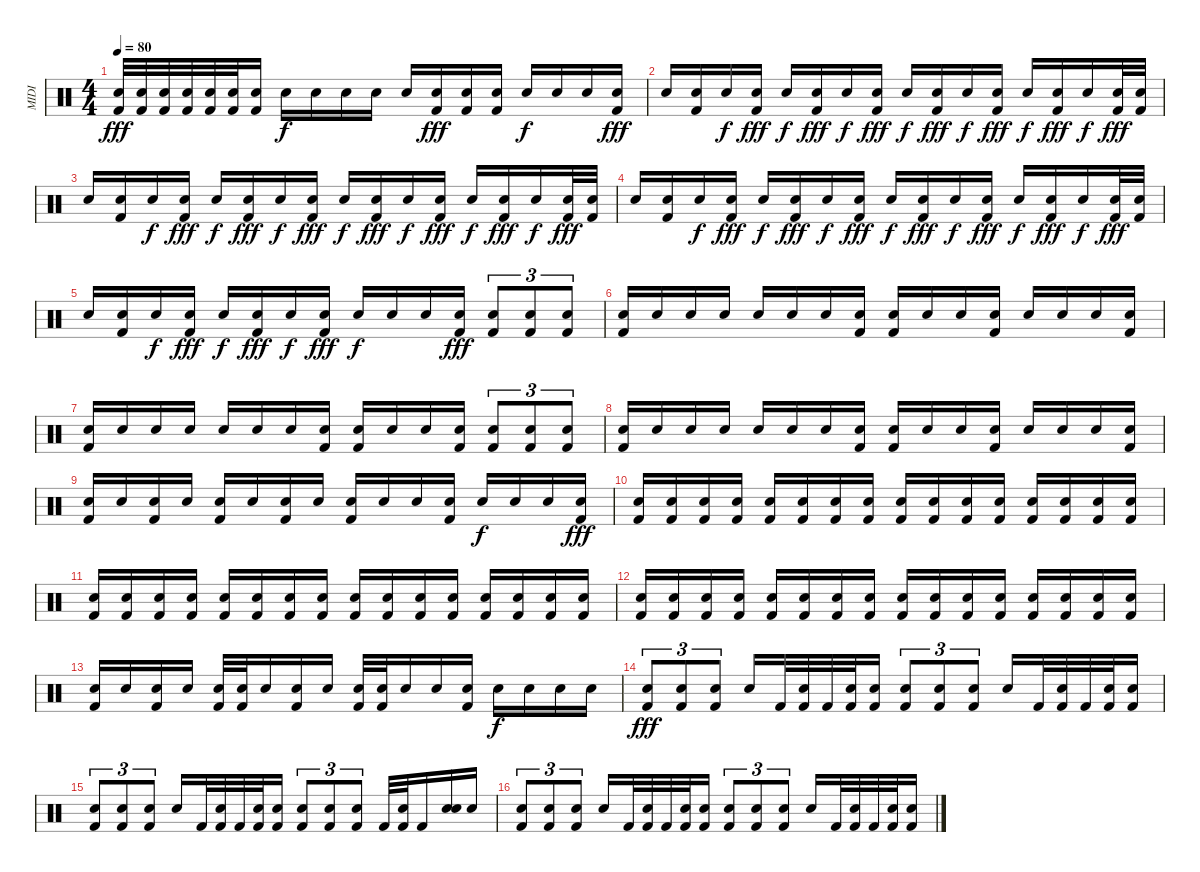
\track ("MIDI" "MIDI") {instrument percussion}
\staff
\articulation defaults
\ts (4 4)
\tempo 80
\clef neutral
\ks c
("Kick (hit) 2" "Snare (hit)").32{dy fff} ("Kick (hit) 2" "Snare (hit)").32 ("Kick (hit) 2" "Snare (hit)").32 ("Kick (hit) 2" "Snare (hit)").32 ("Kick (hit) 2" "Snare (hit)").32 ("Kick (hit) 2" "Snare (hit)").32 ("Kick (hit) 2" "Snare (hit)").16 "Snare (hit)".16{dy f} "Snare (hit)".16 "Snare (hit)".16 "Snare (hit)".16 "Snare (hit)".16 ("Kick (hit) 2" "Snare (hit)").16{dy fff} ("Kick (hit) 2" "Snare (hit)").16 ("Kick (hit) 2" "Snare (hit)").16 "Snare (hit)".16{dy f} "Snare (hit)".16 "Snare (hit)".16 ("Kick (hit) 2" "Snare (hit)").16{dy fff} |
"Snare (hit)".16 ("Kick (hit) 2" "Snare (hit)").16 "Snare (hit)".16{dy f} ("Kick (hit) 2" "Snare (hit)").16{dy fff} "Snare (hit)".16{dy f} ("Kick (hit) 2" "Snare (hit)").16{dy fff} "Snare (hit)".16{dy f} ("Kick (hit) 2" "Snare (hit)").16{dy fff} "Snare (hit)".16{dy f} ("Kick (hit) 2" "Snare (hit)").16{dy fff} "Snare (hit)".16{dy f} ("Kick (hit) 2" "Snare (hit)").16{dy fff} "Snare (hit)".16{dy f} ("Kick (hit) 2" "Snare (hit)").16{dy fff} "Snare (hit)".16{dy f} ("Kick (hit) 2" "Snare (hit)").32{dy fff} ("Kick (hit) 2" "Snare (hit)").32 |
"Snare (hit)".16 ("Kick (hit) 2" "Snare (hit)").16 "Snare (hit)".16{dy f} ("Kick (hit) 2" "Snare (hit)").16{dy fff} "Snare (hit)".16{dy f} ("Kick (hit) 2" "Snare (hit)").16{dy fff} "Snare (hit)".16{dy f} ("Kick (hit) 2" "Snare (hit)").16{dy fff} "Snare (hit)".16{dy f} ("Kick (hit) 2" "Snare (hit)").16{dy fff} "Snare (hit)".16{dy f} ("Kick (hit) 2" "Snare (hit)").16{dy fff} "Snare (hit)".16{dy f} ("Kick (hit) 2" "Snare (hit)").16{dy fff} "Snare (hit)".16{dy f} ("Kick (hit) 2" "Snare (hit)").32{dy fff} ("Kick (hit) 2" "Snare (hit)").32 |
"Snare (hit)".16 ("Kick (hit) 2" "Snare (hit)").16 "Snare (hit)".16{dy f} ("Kick (hit) 2" "Snare (hit)").16{dy fff} "Snare (hit)".16{dy f} ("Kick (hit) 2" "Snare (hit)").16{dy fff} "Snare (hit)".16{dy f} ("Kick (hit) 2" "Snare (hit)").16{dy fff} "Snare (hit)".16{dy f} ("Kick (hit) 2" "Snare (hit)").16{dy fff} "Snare (hit)".16{dy f} ("Kick (hit) 2" "Snare (hit)").16{dy fff} "Snare (hit)".16{dy f} ("Kick (hit) 2" "Snare (hit)").16{dy fff} "Snare (hit)".16{dy f} ("Kick (hit) 2" "Snare (hit)").32{dy fff} ("Kick (hit) 2" "Snare (hit)").32 |
"Snare (hit)".16 ("Kick (hit) 2" "Snare (hit)").16 "Snare (hit)".16{dy f} ("Kick (hit) 2" "Snare (hit)").16{dy fff} "Snare (hit)".16{dy f} ("Kick (hit) 2" "Snare (hit)").16{dy fff} "Snare (hit)".16{dy f} ("Kick (hit) 2" "Snare (hit)").16{dy fff} "Snare (hit)".16{dy f} "Snare (hit)".16 "Snare (hit)".16 ("Kick (hit) 2" "Snare (hit)").16{dy fff} ("Kick (hit) 2" "Snare (hit)").8{tu (3 2)} ("Kick (hit) 2" "Snare (hit)").8{tu (3 2)} ("Kick (hit) 2" "Snare (hit)").8{tu (3 2)} |
("Kick (hit) 2" "Snare (hit)").16 "Snare (hit)".16 "Snare (hit)".16 "Snare (hit)".16 "Snare (hit)".16 "Snare (hit)".16 "Snare (hit)".16 ("Kick (hit) 2" "Snare (hit)").16 ("Kick (hit) 2" "Snare (hit)").16 "Snare (hit)".16 "Snare (hit)".16 ("Kick (hit) 2" "Snare (hit)").16 "Snare (hit)".16 "Snare (hit)".16 "Snare (hit)".16 ("Kick (hit) 2" "Snare (hit)").16 |
("Kick (hit) 2" "Snare (hit)").16 "Snare (hit)".16 "Snare (hit)".16 "Snare (hit)".16 "Snare (hit)".16 "Snare (hit)".16 "Snare (hit)".16 ("Kick (hit) 2" "Snare (hit)").16 ("Kick (hit) 2" "Snare (hit)").16 "Snare (hit)".16 "Snare (hit)".16 ("Kick (hit) 2" "Snare (hit)").16 ("Kick (hit) 2" "Snare (hit)").8{tu (3 2)} ("Kick (hit) 2" "Snare (hit)").8{tu (3 2)} ("Kick (hit) 2" "Snare (hit)").8{tu (3 2)} |
("Kick (hit) 2" "Snare (hit)").16 "Snare (hit)".16 "Snare (hit)".16 "Snare (hit)".16 "Snare (hit)".16 "Snare (hit)".16 "Snare (hit)".16 ("Kick (hit) 2" "Snare (hit)").16 ("Kick (hit) 2" "Snare (hit)").16 "Snare (hit)".16 "Snare (hit)".16 ("Kick (hit) 2" "Snare (hit)").16 "Snare (hit)".16 "Snare (hit)".16 "Snare (hit)".16 ("Kick (hit) 2" "Snare (hit)").16 |
("Kick (hit) 2" "Snare (hit)").16 "Snare (hit)".16 ("Kick (hit) 2" "Snare (hit)").16 "Snare (hit)".16 ("Kick (hit) 2" "Snare (hit)").16 "Snare (hit)".16 ("Kick (hit) 2" "Snare (hit)").16 "Snare (hit)".16 ("Kick (hit) 2" "Snare (hit)").16 "Snare (hit)".16 "Snare (hit)".16 ("Kick (hit) 2" "Snare (hit)").16 "Snare (hit)".16{dy f} "Snare (hit)".16 "Snare (hit)".16 ("Kick (hit) 2" "Snare (hit)").16{dy fff} |
("Kick (hit) 2" "Snare (hit)").16 ("Kick (hit) 2" "Snare (hit)").16 ("Kick (hit) 2" "Snare (hit)").16 ("Kick (hit) 2" "Snare (hit)").16 ("Kick (hit) 2" "Snare (hit)").16 ("Kick (hit) 2" "Snare (hit)").16 ("Kick (hit) 2" "Snare (hit)").16 ("Kick (hit) 2" "Snare (hit)").16 ("Kick (hit) 2" "Snare (hit)").16 ("Kick (hit) 2" "Snare (hit)").16 ("Kick (hit) 2" "Snare (hit)").16 ("Kick (hit) 2" "Snare (hit)").16 ("Kick (hit) 2" "Snare (hit)").16 ("Kick (hit) 2" "Snare (hit)").16 ("Kick (hit) 2" "Snare (hit)").16 ("Kick (hit) 2" "Snare (hit)").16 |
("Kick (hit) 2" "Snare (hit)").16 ("Kick (hit) 2" "Snare (hit)").16 ("Kick (hit) 2" "Snare (hit)").16 ("Kick (hit) 2" "Snare (hit)").16 ("Kick (hit) 2" "Snare (hit)").16 ("Kick (hit) 2" "Snare (hit)").16 ("Kick (hit) 2" "Snare (hit)").16 ("Kick (hit) 2" "Snare (hit)").16 ("Kick (hit) 2" "Snare (hit)").16 ("Kick (hit) 2" "Snare (hit)").16 ("Kick (hit) 2" "Snare (hit)").16 ("Kick (hit) 2" "Snare (hit)").16 ("Kick (hit) 2" "Snare (hit)").16 ("Kick (hit) 2" "Snare (hit)").16 ("Kick (hit) 2" "Snare (hit)").16 ("Kick (hit) 2" "Snare (hit)").16 |
("Kick (hit) 2" "Snare (hit)").16 ("Kick (hit) 2" "Snare (hit)").16 ("Kick (hit) 2" "Snare (hit)").16 ("Kick (hit) 2" "Snare (hit)").16 ("Kick (hit) 2" "Snare (hit)").16 ("Kick (hit) 2" "Snare (hit)").16 ("Kick (hit) 2" "Snare (hit)").16 ("Kick (hit) 2" "Snare (hit)").16 ("Kick (hit) 2" "Snare (hit)").16 ("Kick (hit) 2" "Snare (hit)").16 ("Kick (hit) 2" "Snare (hit)").16 ("Kick (hit) 2" "Snare (hit)").16 ("Kick (hit) 2" "Snare (hit)").16 ("Kick (hit) 2" "Snare (hit)").16 ("Kick (hit) 2" "Snare (hit)").16 ("Kick (hit) 2" "Snare (hit)").16 |
("Kick (hit) 2" "Snare (hit)").16 "Snare (hit)".16 ("Kick (hit) 2" "Snare (hit)").16 "Snare (hit)".16 ("Kick (hit) 2" "Snare (hit)").32 ("Kick (hit) 2" "Snare (hit)").32 "Snare (hit)".16 ("Kick (hit) 2" "Snare (hit)").16 "Snare (hit)".16 ("Kick (hit) 2" "Snare (hit)").32 ("Kick (hit) 2" "Snare (hit)").32 "Snare (hit)".16 "Snare (hit)".16 ("Kick (hit) 2" "Snare (hit)").16 "Snare (hit)".16{dy f} "Snare (hit)".16 "Snare (hit)".16 "Snare (hit)".16 |
("Kick (hit) 2" "Snare (hit)").8{tu (3 2) dy fff} ("Kick (hit) 2" "Snare (hit)").8{tu (3 2)} ("Kick (hit) 2" "Snare (hit)").8{tu (3 2)} "Snare (hit)".16 "Kick (hit) 2".32 ("Kick (hit) 2" "Snare (hit)").32 "Kick (hit) 2".32 ("Kick (hit) 2" "Snare (hit)").32 ("Kick (hit) 2" "Snare (hit)").16 ("Kick (hit) 2" "Snare (hit)").8{tu (3 2)} ("Kick (hit) 2" "Snare (hit)").8{tu (3 2)} ("Kick (hit) 2" "Snare (hit)").8{tu (3 2)} "Snare (hit)".16 "Kick (hit) 2".32 ("Kick (hit) 2" "Snare (hit)").32 "Kick (hit) 2".32 ("Kick (hit) 2" "Snare (hit)").32 ("Kick (hit) 2" "Snare (hit)").16 |
("Kick (hit) 2" "Snare (hit)").8{tu (3 2)} ("Kick (hit) 2" "Snare (hit)").8{tu (3 2)} ("Kick (hit) 2" "Snare (hit)").8{tu (3 2)} "Snare (hit)".16 "Kick (hit) 2".32 ("Kick (hit) 2" "Snare (hit)").32 "Kick (hit) 2".32 ("Kick (hit) 2" "Snare (hit)").32 ("Kick (hit) 2" "Snare (hit)").16 ("Kick (hit) 2" "Snare (hit)").8{tu (3 2)} ("Kick (hit) 2" "Snare (hit)").8{tu (3 2)} ("Kick (hit) 2" "Snare (hit)").8{tu (3 2)} "Kick (hit) 2".32 ("Kick (hit) 2" "Snare (hit)").32 "Kick (hit) 2".16 ("Snare (hit)" "Snare (hit)").16 "Snare (hit)".16 |
("Kick (hit) 2" "Snare (hit)").8{tu (3 2)} ("Kick (hit) 2" "Snare (hit)").8{tu (3 2)} ("Kick (hit) 2" "Snare (hit)").8{tu (3 2)} "Snare (hit)".16 "Kick (hit) 2".32 ("Kick (hit) 2" "Snare (hit)").32 "Kick (hit) 2".32 ("Kick (hit) 2" "Snare (hit)").32 ("Kick (hit) 2" "Snare (hit)").16 ("Kick (hit) 2" "Snare (hit)").8{tu (3 2)} ("Kick (hit) 2" "Snare (hit)").8{tu (3 2)} ("Kick (hit) 2" "Snare (hit)").8{tu (3 2)} "Snare (hit)".16 "Kick (hit) 2".32 ("Kick (hit) 2" "Snare (hit)").32 "Kick (hit) 2".32 ("Kick (hit) 2" "Snare (hit)").32 ("Kick (hit) 2" "Snare (hit)").16
